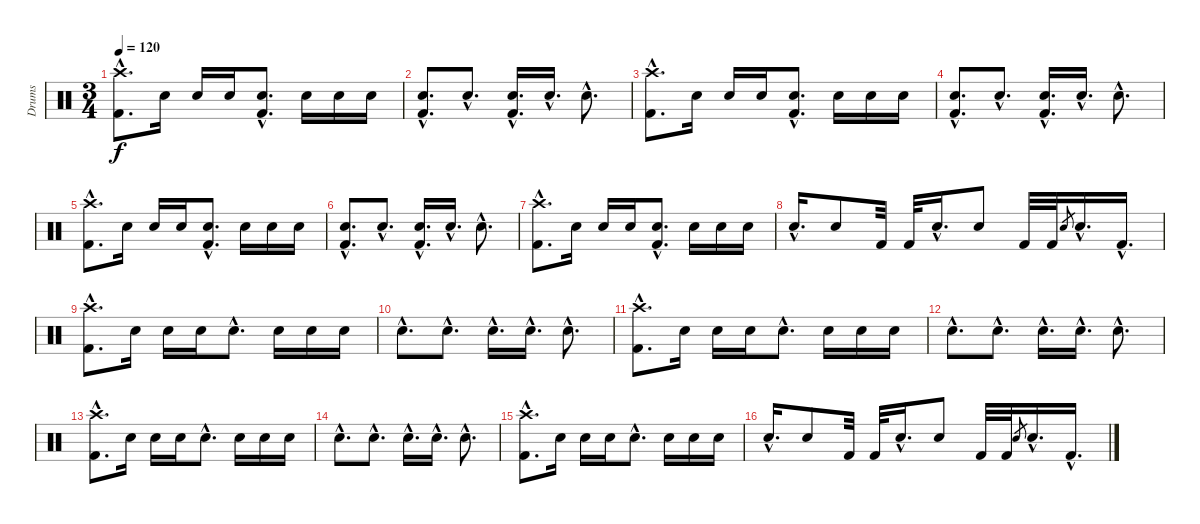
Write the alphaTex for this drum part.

\track ("Drums" "Drums") {instrument percussion}
\staff {score}
\articulation defaults
\ts (3 4)
\tempo 120
\clef neutral
\ks c
("Crash high (hit)"{hac} "Kick (hit) 2"{hac}).8{d dy f} "Snare (hit) 2".16 "Snare (hit) 2".16 "Snare (hit) 2".16 ("Snare (hit) 2"{hac} "Kick (hit) 2"{hac}).8{d} "Snare (hit) 2".16 "Snare (hit) 2".16 "Snare (hit) 2".16 |
("Snare (hit) 2"{hac} "Kick (hit) 2"{hac}).8{d} "Snare (hit) 2"{hac}.8{d} ("Snare (hit) 2"{hac} "Kick (hit) 2"{hac}).16{d} "Snare (hit) 2"{hac}.16{d} "Snare (hit) 2"{hac}.8{d} |
("Crash high (hit)"{hac} "Kick (hit) 2"{hac}).8{d} "Snare (hit) 2".16 "Snare (hit) 2".16 "Snare (hit) 2".16 ("Snare (hit) 2"{hac} "Kick (hit) 2"{hac}).8{d} "Snare (hit) 2".16 "Snare (hit) 2".16 "Snare (hit) 2".16 |
("Snare (hit) 2"{hac} "Kick (hit) 2"{hac}).8{d} "Snare (hit) 2"{hac}.8{d} ("Snare (hit) 2"{hac} "Kick (hit) 2"{hac}).16{d} "Snare (hit) 2"{hac}.16{d} "Snare (hit) 2"{hac}.8{d} |
("Crash high (hit)"{hac} "Kick (hit) 2"{hac}).8{d} "Snare (hit) 2".16 "Snare (hit) 2".16 "Snare (hit) 2".16 ("Snare (hit) 2"{hac} "Kick (hit) 2"{hac}).8{d} "Snare (hit) 2".16 "Snare (hit) 2".16 "Snare (hit) 2".16 |
("Snare (hit) 2"{hac} "Kick (hit) 2"{hac}).8{d} "Snare (hit) 2"{hac}.8{d} ("Snare (hit) 2"{hac} "Kick (hit) 2"{hac}).16{d} "Snare (hit) 2"{hac}.16{d} "Snare (hit) 2"{hac}.8{d} |
("Crash high (hit)"{hac} "Kick (hit) 2"{hac}).8{d} "Snare (hit) 2".16 "Snare (hit) 2".16 "Snare (hit) 2".16 ("Snare (hit) 2"{hac} "Kick (hit) 2"{hac}).8{d} "Snare (hit) 2".16 "Snare (hit) 2".16 "Snare (hit) 2".16 |
"Snare (hit) 2"{hac}.16{d} "Snare (hit) 2".8 "Kick (hit) 2".32 "Kick (hit) 2".32 "Snare (hit) 2"{hac}.16{d} "Snare (hit) 2".8 "Kick (hit) 2".32 "Kick (hit) 2".32 "Snare (hit) 2".8{gr} "Snare (hit) 2"{hac}.16{d} "Kick (hit) 2"{hac}.16{d} |
("Crash high (hit)"{hac} "Kick (hit) 2"{hac}).8{d} "Snare (hit) 2".16 "Snare (hit) 2".16 "Snare (hit) 2".16 "Snare (hit) 2"{hac}.8{d} "Snare (hit) 2".16 "Snare (hit) 2".16 "Snare (hit) 2".16 |
"Snare (hit) 2"{hac}.8{d} "Snare (hit) 2"{hac}.8{d} "Snare (hit) 2"{hac}.16{d} "Snare (hit) 2"{hac}.16{d} "Snare (hit) 2"{hac}.8{d} |
("Crash high (hit)"{hac} "Kick (hit) 2"{hac}).8{d} "Snare (hit) 2".16 "Snare (hit) 2".16 "Snare (hit) 2".16 "Snare (hit) 2"{hac}.8{d} "Snare (hit) 2".16 "Snare (hit) 2".16 "Snare (hit) 2".16 |
"Snare (hit) 2"{hac}.8{d} "Snare (hit) 2"{hac}.8{d} "Snare (hit) 2"{hac}.16{d} "Snare (hit) 2"{hac}.16{d} "Snare (hit) 2"{hac}.8{d} |
("Crash high (hit)"{hac} "Kick (hit) 2"{hac}).8{d} "Snare (hit) 2".16 "Snare (hit) 2".16 "Snare (hit) 2".16 "Snare (hit) 2"{hac}.8{d} "Snare (hit) 2".16 "Snare (hit) 2".16 "Snare (hit) 2".16 |
"Snare (hit) 2"{hac}.8{d} "Snare (hit) 2"{hac}.8{d} "Snare (hit) 2"{hac}.16{d} "Snare (hit) 2"{hac}.16{d} "Snare (hit) 2"{hac}.8{d} |
("Crash high (hit)"{hac} "Kick (hit) 2"{hac}).8{d} "Snare (hit) 2".16 "Snare (hit) 2".16 "Snare (hit) 2".16 "Snare (hit) 2"{hac}.8{d} "Snare (hit) 2".16 "Snare (hit) 2".16 "Snare (hit) 2".16 |
"Snare (hit) 2"{hac}.16{d} "Snare (hit) 2".8 "Kick (hit) 2".32 "Kick (hit) 2".32 "Snare (hit) 2"{hac}.16{d} "Snare (hit) 2".8 "Kick (hit) 2".32 "Kick (hit) 2".32 "Snare (hit) 2".8{gr} "Snare (hit) 2"{hac}.16{d} "Kick (hit) 2"{hac}.16{d}
